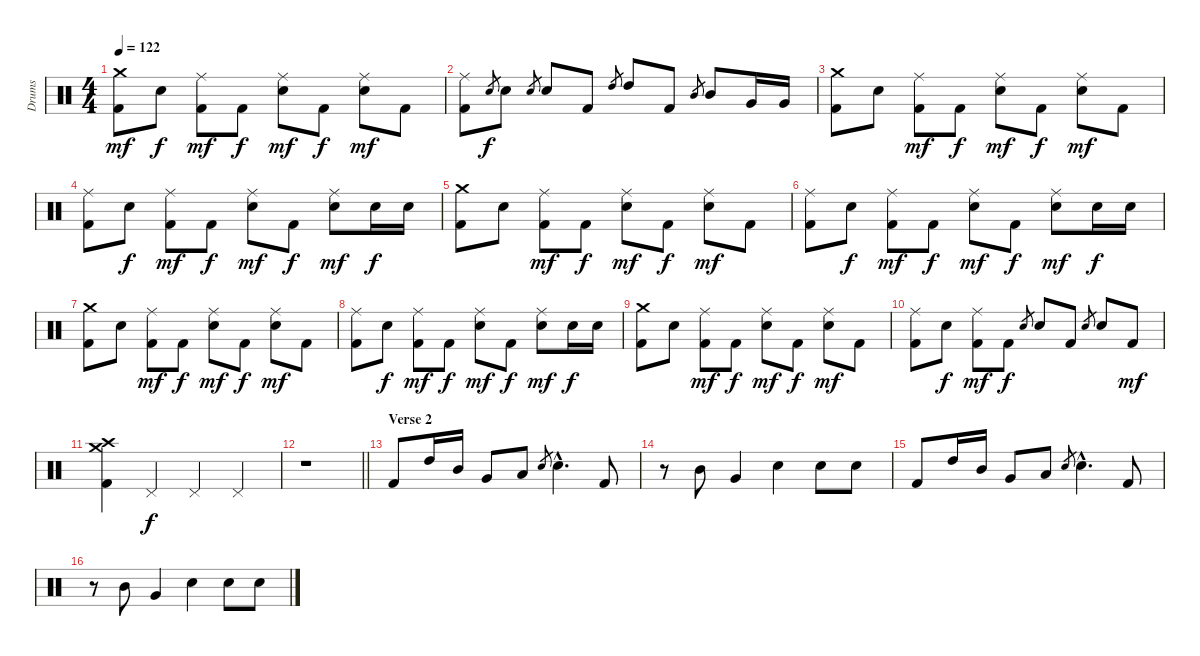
\track ("Drums" "Drums") {instrument percussion}
\staff {score}
\articulation defaults
\ts (4 4)
\tempo 122
\clef neutral
\ks c
("Crash medium (hit)" "Kick (hit) 2").8{dy mf} "Snare (hit) 2".8{dy f} ("Kick (hit) 2" "Ride (middle)").8{dy mf} "Kick (hit) 2".8{dy f} ("Snare (hit) 2" "Ride (middle)").8{dy mf} "Kick (hit) 2".8{dy f} ("Snare (hit) 2" "Ride (middle)").8{dy mf} "Kick (hit) 2".8 |
("Kick (hit) 2" "Ride (middle)").8 "Snare (hit) 2".8{gr dy f} "Snare (hit) 2".8 "Snare (hit) 2".8{gr} "Snare (hit) 2".8 "Kick (hit) 2".8 "High Tom (hit)".8{gr} "High Tom (hit)".8 "Kick (hit) 2".8 "Mid Tom (hit)".8{gr} "Mid Tom (hit)".8 "Very Low Tom (hit)".16 "Very Low Tom (hit)".16 |
("Crash medium (hit)" "Kick (hit) 2").8 "Snare (hit) 2".8 ("Kick (hit) 2" "Ride (middle)").8{dy mf} "Kick (hit) 2".8{dy f} ("Snare (hit) 2" "Ride (middle)").8{dy mf} "Kick (hit) 2".8{dy f} ("Snare (hit) 2" "Ride (middle)").8{dy mf} "Kick (hit) 2".8 |
("Kick (hit) 2" "Ride (middle)").8 "Snare (hit) 2".8{dy f} ("Kick (hit) 2" "Ride (middle)").8{dy mf} "Kick (hit) 2".8{dy f} ("Snare (hit) 2" "Ride (middle)").8{dy mf} "Kick (hit) 2".8{dy f} ("Snare (hit) 2" "Ride (middle)").8{dy mf} "Snare (hit) 2".16{dy f} "Snare (hit) 2".16 |
("Crash medium (hit)" "Kick (hit) 2").8 "Snare (hit) 2".8 ("Kick (hit) 2" "Ride (middle)").8{dy mf} "Kick (hit) 2".8{dy f} ("Snare (hit) 2" "Ride (middle)").8{dy mf} "Kick (hit) 2".8{dy f} ("Snare (hit) 2" "Ride (middle)").8{dy mf} "Kick (hit) 2".8 |
("Kick (hit) 2" "Ride (middle)").8 "Snare (hit) 2".8{dy f} ("Kick (hit) 2" "Ride (middle)").8{dy mf} "Kick (hit) 2".8{dy f} ("Snare (hit) 2" "Ride (middle)").8{dy mf} "Kick (hit) 2".8{dy f} ("Snare (hit) 2" "Ride (middle)").8{dy mf} "Snare (hit) 2".16{dy f} "Snare (hit) 2".16 |
("Crash medium (hit)" "Kick (hit) 2").8 "Snare (hit) 2".8 ("Kick (hit) 2" "Ride (middle)").8{dy mf} "Kick (hit) 2".8{dy f} ("Snare (hit) 2" "Ride (middle)").8{dy mf} "Kick (hit) 2".8{dy f} ("Snare (hit) 2" "Ride (middle)").8{dy mf} "Kick (hit) 2".8 |
("Kick (hit) 2" "Ride (middle)").8 "Snare (hit) 2".8{dy f} ("Kick (hit) 2" "Ride (middle)").8{dy mf} "Kick (hit) 2".8{dy f} ("Snare (hit) 2" "Ride (middle)").8{dy mf} "Kick (hit) 2".8{dy f} ("Snare (hit) 2" "Ride (middle)").8{dy mf} "Snare (hit) 2".16{dy f} "Snare (hit) 2".16 |
("Crash medium (hit)" "Kick (hit) 2").8 "Snare (hit) 2".8 ("Kick (hit) 2" "Ride (middle)").8{dy mf} "Kick (hit) 2".8{dy f} ("Snare (hit) 2" "Ride (middle)").8{dy mf} "Kick (hit) 2".8{dy f} ("Snare (hit) 2" "Ride (middle)").8{dy mf} "Kick (hit) 2".8 |
("Kick (hit) 2" "Ride (middle)").8 "Snare (hit) 2".8{dy f} ("Kick (hit) 2" "Ride (middle)").8{dy mf} "Kick (hit) 2".8{dy f} "Snare (hit) 2".8{gr} "Snare (hit) 2".8 "Kick (hit) 2".8 "Snare (hit) 2".8{gr} "Snare (hit) 2".8 "Kick (hit) 2".8{dy mf} |
("Crash high (hit)" "Crash medium (hit)" "Kick (hit) 2").4 "Pedal Hi-Hat (hit)".4{dy f} "Pedal Hi-Hat (hit)".4 "Pedal Hi-Hat (hit)".4 |
\barLineRight lightlight
r.1 |
\section ("" "Verse 2")
"Kick (hit) 2".8 "High Tom (hit)".16 "Mid Tom (hit)".16 "Very Low Tom (hit)".8 "Low Floor Tom (hit)".8 "Snare (hit) 2".8{gr} "Snare (hit) 2"{hac}.4{d} "Kick (hit) 2".8 |
r.8 "Mid Tom (hit)".8 "Very Low Tom (hit)".4 "Snare (hit) 2".4 "Snare (hit) 2".8 "Snare (hit) 2".8 |
"Kick (hit) 2".8 "High Tom (hit)".16 "Mid Tom (hit)".16 "Very Low Tom (hit)".8 "Low Floor Tom (hit)".8 "Snare (hit) 2".8{gr} "Snare (hit) 2"{hac}.4{d} "Kick (hit) 2".8 |
r.8 "Mid Tom (hit)".8 "Very Low Tom (hit)".4 "Snare (hit) 2".4 "Snare (hit) 2".8 "Snare (hit) 2".8
